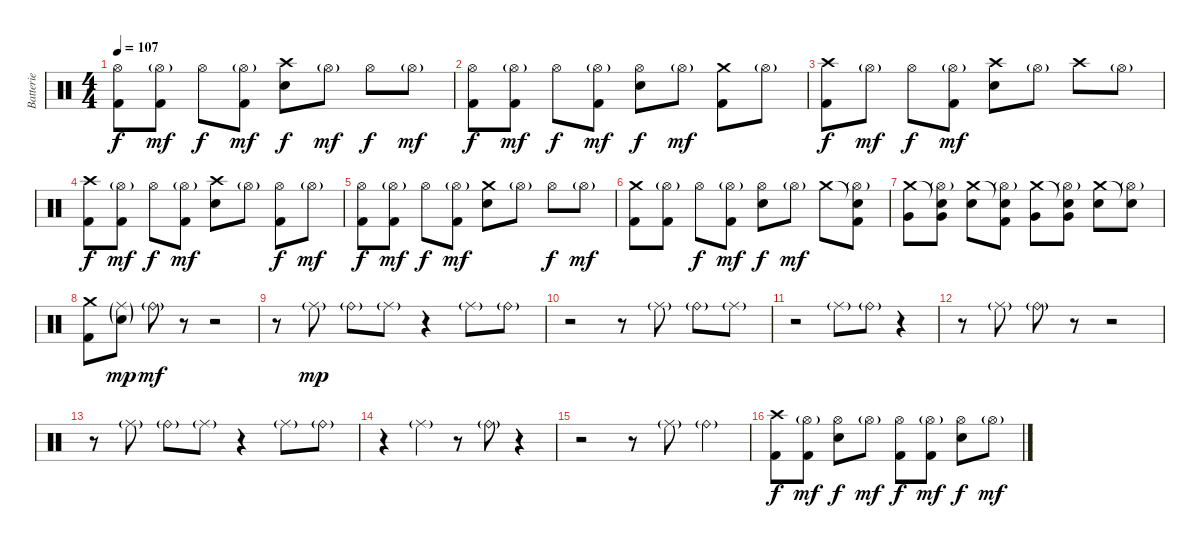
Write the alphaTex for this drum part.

\track ("Batterie" "Batterie") {instrument percussion}
\staff {score}
\articulation defaults
\ts (4 4)
\tempo 107
\clef neutral
\ks c
("Hi-Hat (open)" "Kick (hit) 2").8{dy f} ("Hi-Hat (open)"{g} "Kick (hit) 2").8{dy mf} "Hi-Hat (open)".8{dy f} ("Hi-Hat (open)"{g} "Kick (hit) 2").8{dy mf} ("Crash high (hit)" "Electric Snare (hit)").8{dy f} "Hi-Hat (open)"{g}.8{dy mf} "Hi-Hat (open)".8{dy f} "Hi-Hat (open)"{g}.8{dy mf} |
("Hi-Hat (open)" "Kick (hit) 2").8{dy f} ("Hi-Hat (open)"{g} "Kick (hit) 2").8{dy mf} "Hi-Hat (open)".8{dy f} ("Hi-Hat (open)"{g} "Kick (hit) 2").8{dy mf} ("Hi-Hat (open)" "Electric Snare (hit)").8{dy f} "Hi-Hat (open)"{g}.8{dy mf} ("Crash medium (hit)" "Kick (hit) 2").8 "Hi-Hat (open)"{g}.8 |
("Crash high (hit)" "Kick (hit) 2").8{dy f} "Hi-Hat (open)"{g}.8{dy mf} "Hi-Hat (open)".8{dy f} ("Hi-Hat (open)"{g} "Kick (hit) 2").8{dy mf} ("Crash high (hit)" "Electric Snare (hit)").8 "Hi-Hat (open)"{g}.8 "Crash high (hit)".8 "Hi-Hat (open)"{g}.8 |
("Crash high (hit)" "Kick (hit) 2").8{dy f} ("Hi-Hat (open)"{g} "Kick (hit) 2").8{dy mf} "Hi-Hat (open)".8{dy f} ("Hi-Hat (open)"{g} "Kick (hit) 2").8{dy mf} ("Crash high (hit)" "Electric Snare (hit)").8 "Hi-Hat (open)"{g}.8 ("Hi-Hat (open)" "Kick (hit) 2").8{dy f} "Hi-Hat (open)"{g}.8{dy mf} |
("Hi-Hat (open)" "Kick (hit) 2").8{dy f} ("Hi-Hat (open)"{g} "Kick (hit) 2").8{dy mf} "Hi-Hat (open)".8{dy f} ("Hi-Hat (open)"{g} "Kick (hit) 2").8{dy mf} ("Crash medium (hit)" "Electric Snare (hit)").8 "Hi-Hat (open)"{g}.8 "Hi-Hat (open)".8{dy f} "Hi-Hat (open)"{g}.8{dy mf} |
("Crash medium (hit)" "Kick (hit) 2").8 ("Hi-Hat (open)"{g} "Kick (hit) 2").8 "Hi-Hat (open)".8{dy f} ("Hi-Hat (open)"{g} "Kick (hit) 2").8{dy mf} ("Hi-Hat (open)" "Electric Snare (hit)").8{dy f} "Hi-Hat (open)"{g}.8{dy mf} "Crash medium (hit)".8 ("Snare (hit)"{t} "Hi-Hat (open)"{g} "Kick (hit) 2").8 |
("Crash medium (hit)" "Very Low Tom (hit)").8 ("Snare (hit)"{t} "Hi-Hat (open)"{g} "Very Low Tom (hit)").8 ("Crash medium (hit)" "Electric Snare (hit)").8 ("Snare (hit)"{t} "Hi-Hat (open)"{g} "Kick (hit) 2").8 ("Crash medium (hit)" "Very Low Tom (hit)").8 ("Snare (hit)"{t} "Hi-Hat (open)"{g} "Very Low Tom (hit)").8 ("Crash medium (hit)" "Electric Snare (hit)").8 ("Snare (hit)"{t} "Hi-Hat (open)"{g}).8 |
("Crash medium (hit)" "Kick (hit) 2").8 ("Ride (middle)"{g} "Electric Snare (hit)"{g}).8{dy mp} "Ride (bell)"{g}.8{dy mf} r.8 r.2 |
r.8 "Ride (middle)"{g}.8{dy mp} "Ride (bell)"{g}.8 "Ride (middle)"{g}.8 r.4 "Ride (middle)"{g}.8 "Ride (bell)"{g}.8 |
r.2 r.8 "Ride (middle)"{g}.8 "Ride (bell)"{g}.8 "Ride (middle)"{g}.8 |
r.2 "Ride (middle)"{g}.8 "Ride (bell)"{g}.8 r.4 |
r.8 "Ride (middle)"{g}.8 "Ride (bell)"{g}.8 r.8 r.2 |
r.8 "Ride (middle)"{g}.8 "Ride (bell)"{g}.8 "Ride (middle)"{g}.8 r.4 "Ride (middle)"{g}.8 "Ride (bell)"{g}.8 |
r.4 "Ride (middle)"{g}.4 r.8 "Ride (bell)"{g}.8 r.4 |
r.2 r.8 "Ride (middle)"{g}.8 "Ride (bell)"{g}.4 |
("Crash high (hit)" "Kick (hit) 2").8{dy f} ("Hi-Hat (open)"{g} "Kick (hit) 2").8{dy mf} ("Hi-Hat (open)" "Electric Snare (hit)").8{dy f} "Hi-Hat (open)"{g}.8{dy mf} ("Hi-Hat (open)" "Kick (hit) 2").8{dy f} ("Hi-Hat (open)"{g} "Kick (hit) 2").8{dy mf} ("Hi-Hat (open)" "Electric Snare (hit)").8{dy f} "Hi-Hat (open)"{g}.8{dy mf}
